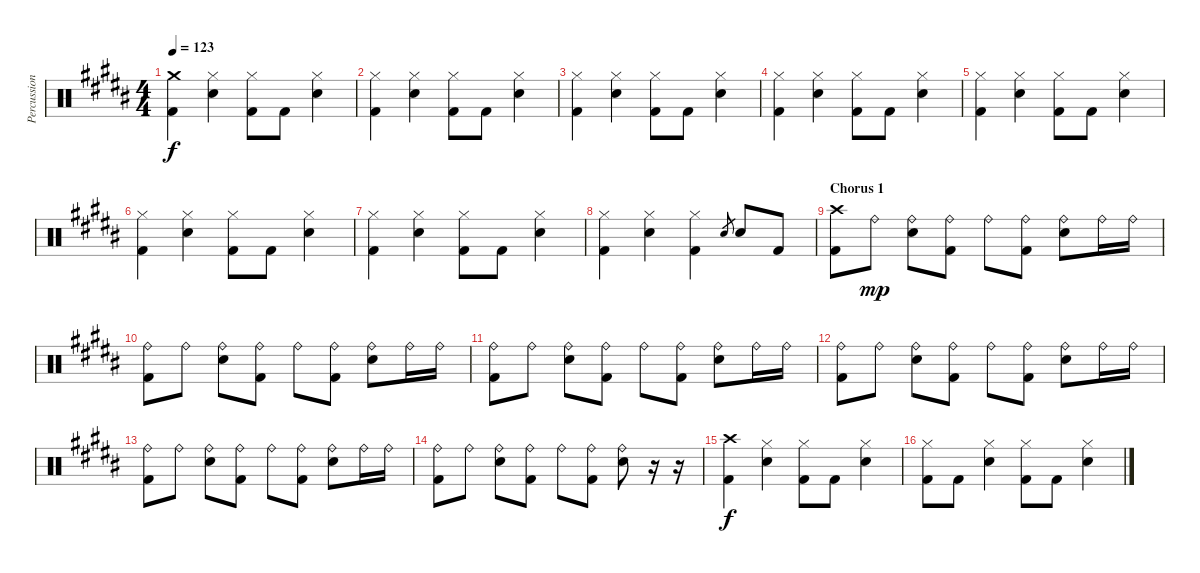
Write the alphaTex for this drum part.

\track ("Percussion" "Percussion") {instrument percussion}
\staff {score}
\articulation defaults
\ts (4 4)
\tempo 123
\clef neutral
\ks b
("Crash medium (hit)" "Kick (hit) 2").4{dy f} ("Hi-Hat (closed)" "Snare (hit) 2").4 ("Hi-Hat (closed)" "Kick (hit) 2").8 "Kick (hit) 2".8 ("Hi-Hat (closed)" "Snare (hit) 2").4 |
("Hi-Hat (closed)" "Kick (hit) 2").4 ("Hi-Hat (closed)" "Snare (hit) 2").4 ("Hi-Hat (closed)" "Kick (hit) 2").8 "Kick (hit) 2".8 ("Hi-Hat (closed)" "Snare (hit) 2").4 |
("Hi-Hat (closed)" "Kick (hit) 2").4 ("Hi-Hat (closed)" "Snare (hit) 2").4 ("Hi-Hat (closed)" "Kick (hit) 2").8 "Kick (hit) 2".8 ("Hi-Hat (closed)" "Snare (hit) 2").4 |
("Hi-Hat (closed)" "Kick (hit) 2").4 ("Hi-Hat (closed)" "Snare (hit) 2").4 ("Hi-Hat (closed)" "Kick (hit) 2").8 "Kick (hit) 2".8 ("Hi-Hat (closed)" "Snare (hit) 2").4 |
("Hi-Hat (closed)" "Kick (hit) 2").4 ("Hi-Hat (closed)" "Snare (hit) 2").4 ("Hi-Hat (closed)" "Kick (hit) 2").8 "Kick (hit) 2".8 ("Hi-Hat (closed)" "Snare (hit) 2").4 |
("Hi-Hat (closed)" "Kick (hit) 2").4 ("Hi-Hat (closed)" "Snare (hit) 2").4 ("Hi-Hat (closed)" "Kick (hit) 2").8 "Kick (hit) 2".8 ("Hi-Hat (closed)" "Snare (hit) 2").4 |
("Hi-Hat (closed)" "Kick (hit) 2").4 ("Hi-Hat (closed)" "Snare (hit) 2").4 ("Hi-Hat (closed)" "Kick (hit) 2").8 "Kick (hit) 2".8 ("Hi-Hat (closed)" "Snare (hit) 2").4 |
("Hi-Hat (closed)" "Kick (hit) 2").4 ("Hi-Hat (closed)" "Snare (hit) 2").4 ("Hi-Hat (closed)" "Kick (hit) 2").4 "Snare (hit) 2".8{gr} "Snare (hit) 2".8 "Kick (hit) 2".8 |
\section ("" "Chorus 1")
("Crash high (hit)" "Kick (hit) 2").8 "Ride (bell)".8{dy mp} ("Ride (bell)" "Snare (hit) 2").8 ("Ride (bell)" "Kick (hit) 2").8 "Ride (bell)".8 ("Ride (bell)" "Kick (hit) 2").8 ("Ride (bell)" "Snare (hit) 2").8 "Ride (bell)".16 "Ride (bell)".16 |
("Ride (bell)" "Kick (hit) 2").8 "Ride (bell)".8 ("Ride (bell)" "Snare (hit) 2").8 ("Ride (bell)" "Kick (hit) 2").8 "Ride (bell)".8 ("Ride (bell)" "Kick (hit) 2").8 ("Ride (bell)" "Snare (hit) 2").8 "Ride (bell)".16 "Ride (bell)".16 |
("Ride (bell)" "Kick (hit) 2").8 "Ride (bell)".8 ("Ride (bell)" "Snare (hit) 2").8 ("Ride (bell)" "Kick (hit) 2").8 "Ride (bell)".8 ("Ride (bell)" "Kick (hit) 2").8 ("Ride (bell)" "Snare (hit) 2").8 "Ride (bell)".16 "Ride (bell)".16 |
("Ride (bell)" "Kick (hit) 2").8 "Ride (bell)".8 ("Ride (bell)" "Snare (hit) 2").8 ("Ride (bell)" "Kick (hit) 2").8 "Ride (bell)".8 ("Ride (bell)" "Kick (hit) 2").8 ("Ride (bell)" "Snare (hit) 2").8 "Ride (bell)".16 "Ride (bell)".16 |
("Ride (bell)" "Kick (hit) 2").8 "Ride (bell)".8 ("Ride (bell)" "Snare (hit) 2").8 ("Ride (bell)" "Kick (hit) 2").8 "Ride (bell)".8 ("Ride (bell)" "Kick (hit) 2").8 ("Ride (bell)" "Snare (hit) 2").8 "Ride (bell)".16 "Ride (bell)".16 |
("Ride (bell)" "Kick (hit) 2").8 "Ride (bell)".8 ("Ride (bell)" "Snare (hit) 2").8 ("Ride (bell)" "Kick (hit) 2").8 "Ride (bell)".8 ("Ride (bell)" "Kick (hit) 2").8 ("Ride (bell)" "Snare (hit) 2").8 r.16 r.16 |
("Crash high (hit)" "Kick (hit) 2").4{dy f} ("Hi-Hat (closed)" "Snare (hit) 2").4 ("Hi-Hat (closed)" "Kick (hit) 2").8 "Kick (hit) 2".8 ("Hi-Hat (closed)" "Snare (hit) 2").4 |
("Hi-Hat (closed)" "Kick (hit) 2").8 "Kick (hit) 2".8 ("Hi-Hat (closed)" "Snare (hit) 2").4 ("Hi-Hat (closed)" "Kick (hit) 2").8 "Kick (hit) 2".8 ("Hi-Hat (closed)" "Snare (hit) 2").4
